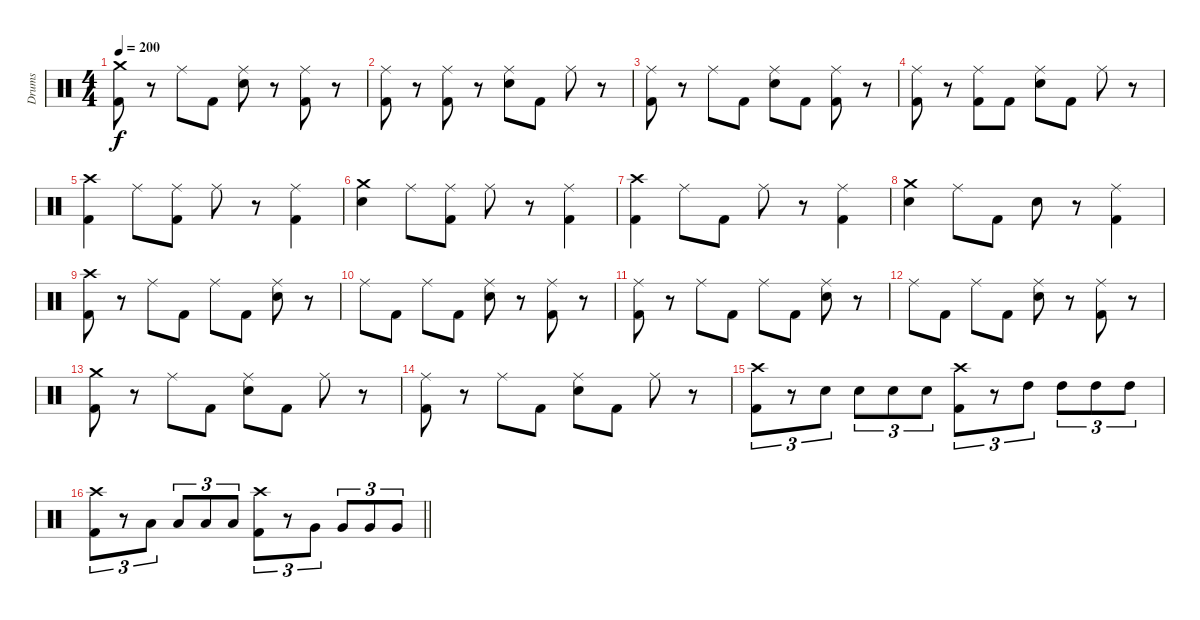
\track ("Drums" "Drums") {instrument percussion}
\staff {score}
\articulation defaults
\ts (4 4)
\tempo 200
\clef neutral
\ks c
("Crash medium (hit)" "Kick (hit) 2").8{dy f} r.8 "Ride (middle)".8 "Kick (hit) 2".8 ("Ride (middle)" "Electric Snare (hit)").8 r.8 ("Ride (middle)" "Kick (hit) 2").8 r.8 |
("Ride (middle)" "Kick (hit) 2").8 r.8 ("Ride (middle)" "Kick (hit) 2").8 r.8 ("Ride (middle)" "Electric Snare (hit)").8 "Kick (hit) 2".8 "Ride (middle)".8 r.8 |
("Ride (middle)" "Kick (hit) 2").8 r.8 "Ride (middle)".8 "Kick (hit) 2".8 ("Ride (middle)" "Electric Snare (hit)").8 "Kick (hit) 2".8 ("Ride (middle)" "Kick (hit) 2").8 r.8 |
("Ride (middle)" "Kick (hit) 2").8 r.8 ("Ride (middle)" "Kick (hit) 2").8 "Kick (hit) 2".8 ("Ride (middle)" "Electric Snare (hit)").8 "Kick (hit) 2".8 "Ride (middle)".8 r.8 |
("Crash high (hit)" "Kick (hit) 2").4 "Ride (middle)".8 ("Ride (middle)" "Kick (hit) 2").8 "Ride (middle)".8 r.8 ("Ride (middle)" "Kick (hit) 2").4 |
("Crash medium (hit)" "Electric Snare (hit)").4 "Ride (middle)".8 ("Ride (middle)" "Kick (hit) 2").8 "Ride (middle)".8 r.8 ("Ride (middle)" "Kick (hit) 2").4 |
("Crash high (hit)" "Kick (hit) 2").4 "Ride (middle)".8 "Kick (hit) 2".8 "Ride (middle)".8 r.8 ("Ride (middle)" "Kick (hit) 2").4 |
("Crash medium (hit)" "Electric Snare (hit)").4 "Ride (middle)".8 "Kick (hit) 2".8 "Electric Snare (hit)".8 r.8 ("Ride (middle)" "Kick (hit) 2").4 |
("Crash high (hit)" "Kick (hit) 2").8 r.8 "Ride (middle)".8 "Kick (hit) 2".8 "Ride (middle)".8 "Kick (hit) 2".8 ("Ride (middle)" "Electric Snare (hit)").8 r.8 |
"Ride (middle)".8 "Kick (hit) 2".8 "Ride (middle)".8 "Kick (hit) 2".8 ("Ride (middle)" "Electric Snare (hit)").8 r.8 ("Ride (middle)" "Kick (hit) 2").8 r.8 |
("Ride (middle)" "Kick (hit) 2").8 r.8 "Ride (middle)".8 "Kick (hit) 2".8 "Ride (middle)".8 "Kick (hit) 2".8 ("Ride (middle)" "Electric Snare (hit)").8 r.8 |
"Ride (middle)".8 "Kick (hit) 2".8 "Ride (middle)".8 "Kick (hit) 2".8 ("Ride (middle)" "Electric Snare (hit)").8 r.8 ("Ride (middle)" "Kick (hit) 2").8 r.8 |
("Crash medium (hit)" "Kick (hit) 2").8 r.8 "Ride (middle)".8 "Kick (hit) 2".8 ("Ride (middle)" "Electric Snare (hit)").8 "Kick (hit) 2".8 "Ride (middle)".8 r.8 |
("Ride (middle)" "Kick (hit) 2").8 r.8 "Ride (middle)".8 "Kick (hit) 2".8 ("Ride (middle)" "Electric Snare (hit)").8 "Kick (hit) 2".8 "Ride (middle)".8 r.8 |
("Crash high (hit)" "Kick (hit) 2").8{tu (3 2)} r.8{tu (3 2)} "Electric Snare (hit)".8{tu (3 2)} "Electric Snare (hit)".8{tu (3 2)} "Electric Snare (hit)".8{tu (3 2)} "Electric Snare (hit)".8{tu (3 2)} ("Crash high (hit)" "Kick (hit) 2").8{tu (3 2)} r.8{tu (3 2)} "High Tom (hit)".8{tu (3 2)} "High Tom (hit)".8{tu (3 2)} "High Tom (hit)".8{tu (3 2)} "High Tom (hit)".8{tu (3 2)} |
\barLineRight lightlight
("Crash high (hit)" "Kick (hit) 2").8{tu (3 2)} r.8{tu (3 2)} "Low Tom (hit)".8{tu (3 2)} "Low Tom (hit)".8{tu (3 2)} "Low Tom (hit)".8{tu (3 2)} "Low Tom (hit)".8{tu (3 2)} ("Crash high (hit)" "Kick (hit) 2").8{tu (3 2)} r.8{tu (3 2)} "Very Low Tom (hit)".8{tu (3 2)} "Very Low Tom (hit)".8{tu (3 2)} "Very Low Tom (hit)".8{tu (3 2)} "Very Low Tom (hit)".8{tu (3 2)}
